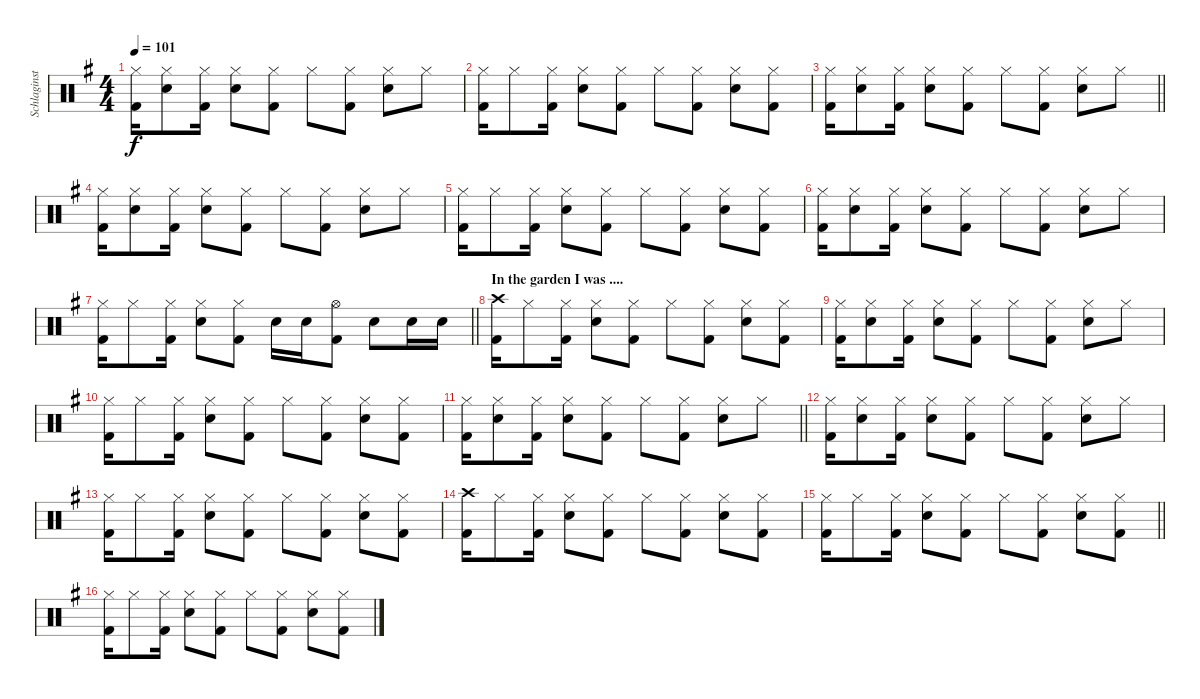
\track ("Schlaginstrumente - Auswahl" "Schlaginst") {instrument percussion}
\staff {score}
\articulation defaults
\ts (4 4)
\tempo 101
\clef neutral
\ks g
("Hi-Hat (closed)" "Kick (hit) 2").16{dy f} ("Hi-Hat (closed)" "Electric Snare (hit)").8 ("Hi-Hat (closed)" "Kick (hit) 2").16 ("Hi-Hat (closed)" "Electric Snare (hit)").8 ("Hi-Hat (closed)" "Kick (hit) 2").8 "Hi-Hat (closed)".8 ("Hi-Hat (closed)" "Kick (hit) 2").8 ("Hi-Hat (closed)" "Electric Snare (hit)").8 "Hi-Hat (closed)".8 |
("Hi-Hat (closed)" "Kick (hit) 2").16 "Hi-Hat (closed)".8 ("Hi-Hat (closed)" "Kick (hit) 2").16 ("Hi-Hat (closed)" "Electric Snare (hit)").8 ("Hi-Hat (closed)" "Kick (hit) 2").8 "Hi-Hat (closed)".8 ("Hi-Hat (closed)" "Kick (hit) 2").8 ("Hi-Hat (closed)" "Electric Snare (hit)").8 ("Hi-Hat (closed)" "Kick (hit) 2").8 |
\barLineRight lightlight
("Hi-Hat (closed)" "Kick (hit) 2").16 ("Hi-Hat (closed)" "Electric Snare (hit)").8 ("Hi-Hat (closed)" "Kick (hit) 2").16 ("Hi-Hat (closed)" "Electric Snare (hit)").8 ("Hi-Hat (closed)" "Kick (hit) 2").8 "Hi-Hat (closed)".8 ("Hi-Hat (closed)" "Kick (hit) 2").8 ("Hi-Hat (closed)" "Electric Snare (hit)").8 "Hi-Hat (closed)".8 |
("Hi-Hat (closed)" "Kick (hit) 2").16 ("Hi-Hat (closed)" "Electric Snare (hit)").8 ("Hi-Hat (closed)" "Kick (hit) 2").16 ("Hi-Hat (closed)" "Electric Snare (hit)").8 ("Hi-Hat (closed)" "Kick (hit) 2").8 "Hi-Hat (closed)".8 ("Hi-Hat (closed)" "Kick (hit) 2").8 ("Hi-Hat (closed)" "Electric Snare (hit)").8 "Hi-Hat (closed)".8 |
("Hi-Hat (closed)" "Kick (hit) 2").16 "Hi-Hat (closed)".8 ("Hi-Hat (closed)" "Kick (hit) 2").16 ("Hi-Hat (closed)" "Electric Snare (hit)").8 ("Hi-Hat (closed)" "Kick (hit) 2").8 "Hi-Hat (closed)".8 ("Hi-Hat (closed)" "Kick (hit) 2").8 ("Hi-Hat (closed)" "Electric Snare (hit)").8 ("Hi-Hat (closed)" "Kick (hit) 2").8 |
("Hi-Hat (closed)" "Kick (hit) 2").16 ("Hi-Hat (closed)" "Electric Snare (hit)").8 ("Hi-Hat (closed)" "Kick (hit) 2").16 ("Hi-Hat (closed)" "Electric Snare (hit)").8 ("Hi-Hat (closed)" "Kick (hit) 2").8 "Hi-Hat (closed)".8 ("Hi-Hat (closed)" "Kick (hit) 2").8 ("Hi-Hat (closed)" "Electric Snare (hit)").8 "Hi-Hat (closed)".8 |
\barLineRight lightlight
("Hi-Hat (closed)" "Kick (hit) 2").16 "Hi-Hat (closed)".8 ("Hi-Hat (closed)" "Kick (hit) 2").16 ("Hi-Hat (closed)" "Electric Snare (hit)").8 ("Hi-Hat (closed)" "Kick (hit) 2").8 "Electric Snare (hit)".16 "Electric Snare (hit)".16 ("Hi-Hat (open)" "Kick (hit) 2").8 "Electric Snare (hit)".8 "Electric Snare (hit)".16 "Electric Snare (hit)".16 |
\section ("" "In the garden I was ....")
("Crash high (hit)" "Kick (hit) 2").16 "Hi-Hat (closed)".8 ("Hi-Hat (closed)" "Kick (hit) 2").16 ("Hi-Hat (closed)" "Electric Snare (hit)").8 ("Hi-Hat (closed)" "Kick (hit) 2").8 "Hi-Hat (closed)".8 ("Hi-Hat (closed)" "Kick (hit) 2").8 ("Hi-Hat (closed)" "Electric Snare (hit)").8 ("Hi-Hat (closed)" "Kick (hit) 2").8 |
("Hi-Hat (closed)" "Kick (hit) 2").16 ("Hi-Hat (closed)" "Electric Snare (hit)").8 ("Hi-Hat (closed)" "Kick (hit) 2").16 ("Hi-Hat (closed)" "Electric Snare (hit)").8 ("Hi-Hat (closed)" "Kick (hit) 2").8 "Hi-Hat (closed)".8 ("Hi-Hat (closed)" "Kick (hit) 2").8 ("Hi-Hat (closed)" "Electric Snare (hit)").8 "Hi-Hat (closed)".8 |
("Hi-Hat (closed)" "Kick (hit) 2").16 "Hi-Hat (closed)".8 ("Hi-Hat (closed)" "Kick (hit) 2").16 ("Hi-Hat (closed)" "Electric Snare (hit)").8 ("Hi-Hat (closed)" "Kick (hit) 2").8 "Hi-Hat (closed)".8 ("Hi-Hat (closed)" "Kick (hit) 2").8 ("Hi-Hat (closed)" "Electric Snare (hit)").8 ("Hi-Hat (closed)" "Kick (hit) 2").8 |
\barLineRight lightlight
("Hi-Hat (closed)" "Kick (hit) 2").16 ("Hi-Hat (closed)" "Electric Snare (hit)").8 ("Hi-Hat (closed)" "Kick (hit) 2").16 ("Hi-Hat (closed)" "Electric Snare (hit)").8 ("Hi-Hat (closed)" "Kick (hit) 2").8 "Hi-Hat (closed)".8 ("Hi-Hat (closed)" "Kick (hit) 2").8 ("Hi-Hat (closed)" "Electric Snare (hit)").8 "Hi-Hat (closed)".8 |
("Hi-Hat (closed)" "Kick (hit) 2").16 ("Hi-Hat (closed)" "Electric Snare (hit)").8 ("Hi-Hat (closed)" "Kick (hit) 2").16 ("Hi-Hat (closed)" "Electric Snare (hit)").8 ("Hi-Hat (closed)" "Kick (hit) 2").8 "Hi-Hat (closed)".8 ("Hi-Hat (closed)" "Kick (hit) 2").8 ("Hi-Hat (closed)" "Electric Snare (hit)").8 "Hi-Hat (closed)".8 |
("Hi-Hat (closed)" "Kick (hit) 2").16 "Hi-Hat (closed)".8 ("Hi-Hat (closed)" "Kick (hit) 2").16 ("Hi-Hat (closed)" "Electric Snare (hit)").8 ("Hi-Hat (closed)" "Kick (hit) 2").8 "Hi-Hat (closed)".8 ("Hi-Hat (closed)" "Kick (hit) 2").8 ("Hi-Hat (closed)" "Electric Snare (hit)").8 ("Hi-Hat (closed)" "Kick (hit) 2").8 |
("Crash high (hit)" "Kick (hit) 2").16 "Hi-Hat (closed)".8 ("Hi-Hat (closed)" "Kick (hit) 2").16 ("Hi-Hat (closed)" "Electric Snare (hit)").8 ("Hi-Hat (closed)" "Kick (hit) 2").8 "Hi-Hat (closed)".8 ("Hi-Hat (closed)" "Kick (hit) 2").8 ("Hi-Hat (closed)" "Electric Snare (hit)").8 ("Hi-Hat (closed)" "Kick (hit) 2").8 |
\barLineRight lightlight
("Hi-Hat (closed)" "Kick (hit) 2").16 "Hi-Hat (closed)".8 ("Hi-Hat (closed)" "Kick (hit) 2").16 ("Hi-Hat (closed)" "Electric Snare (hit)").8 ("Hi-Hat (closed)" "Kick (hit) 2").8 "Hi-Hat (closed)".8 ("Hi-Hat (closed)" "Kick (hit) 2").8 ("Hi-Hat (closed)" "Electric Snare (hit)").8 ("Hi-Hat (closed)" "Kick (hit) 2").8 |
("Hi-Hat (closed)" "Kick (hit) 2").16 "Hi-Hat (closed)".8 ("Hi-Hat (closed)" "Kick (hit) 2").16 ("Hi-Hat (closed)" "Electric Snare (hit)").8 ("Hi-Hat (closed)" "Kick (hit) 2").8 "Hi-Hat (closed)".8 ("Hi-Hat (closed)" "Kick (hit) 2").8 ("Hi-Hat (closed)" "Electric Snare (hit)").8 ("Hi-Hat (closed)" "Kick (hit) 2").8
